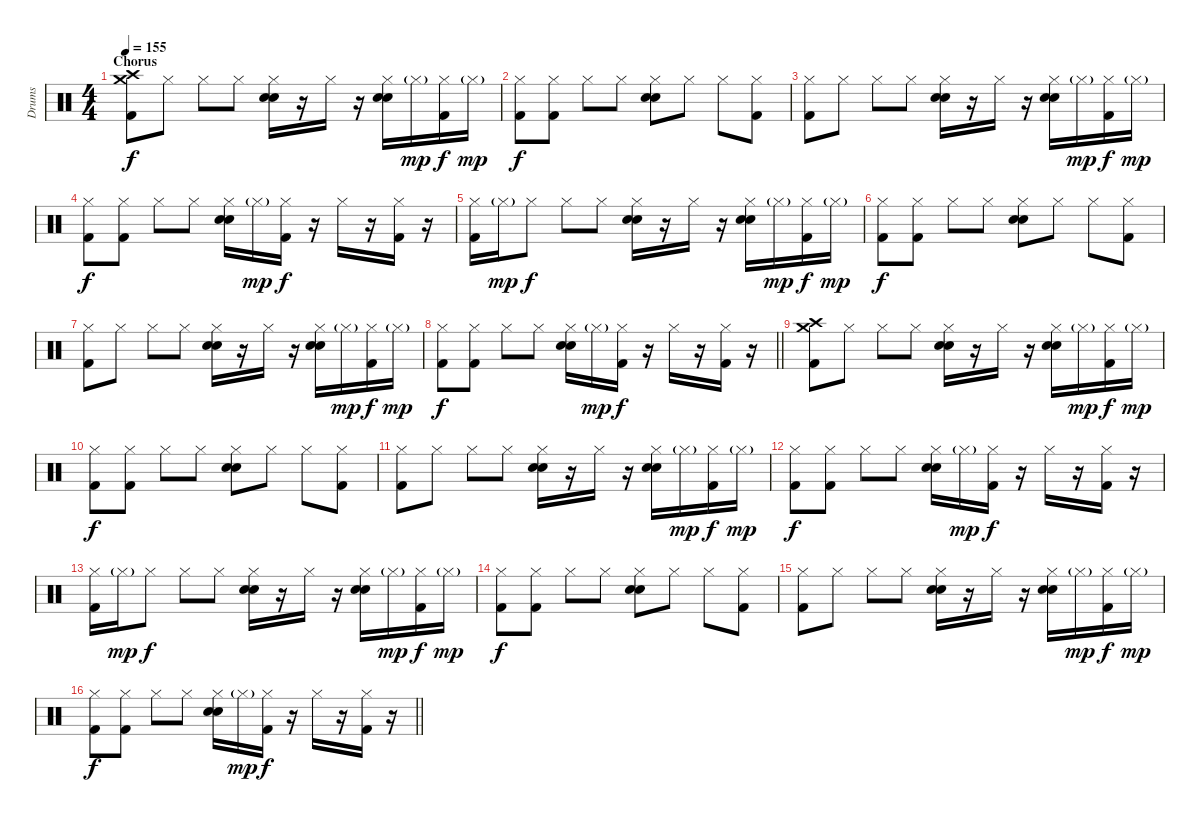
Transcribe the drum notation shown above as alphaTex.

\track ("Drums" "Drums") {instrument percussion}
\staff {score}
\articulation defaults
\ts (4 4)
\section ("" "Chorus")
\tempo 155
\clef neutral
\ks c
("Crash high (hit)" "Crash medium (hit)" "Kick (hit) 2").8{dy f} "Hi-Hat (closed)".8 "Hi-Hat (closed)".8 "Hi-Hat (closed)".8 ("Hi-Hat (closed)" "Electric Snare (hit)" "Hand Clap (hit)").16 r.16 "Hi-Hat (closed)".16 r.16 ("Hi-Hat (closed)" "Electric Snare (hit)" "Hand Clap (hit)").16 "Hi-Hat (closed)"{g}.16{dy mp} ("Hi-Hat (closed)" "Kick (hit) 2").16{dy f} "Hi-Hat (closed)"{g}.16{dy mp} |
("Hi-Hat (closed)" "Kick (hit) 2").8{dy f} ("Hi-Hat (closed)" "Kick (hit) 2").8 "Hi-Hat (closed)".8 "Hi-Hat (closed)".8 ("Hi-Hat (closed)" "Electric Snare (hit)" "Hand Clap (hit)").8 "Hi-Hat (closed)".8 "Hi-Hat (closed)".8 ("Hi-Hat (closed)" "Kick (hit) 2").8 |
("Hi-Hat (closed)" "Kick (hit) 2").8 "Hi-Hat (closed)".8 "Hi-Hat (closed)".8 "Hi-Hat (closed)".8 ("Hi-Hat (closed)" "Electric Snare (hit)" "Hand Clap (hit)").16 r.16 "Hi-Hat (closed)".16 r.16 ("Hi-Hat (closed)" "Electric Snare (hit)" "Hand Clap (hit)").16 "Hi-Hat (closed)"{g}.16{dy mp} ("Hi-Hat (closed)" "Kick (hit) 2").16{dy f} "Hi-Hat (closed)"{g}.16{dy mp} |
("Hi-Hat (closed)" "Kick (hit) 2").8{dy f} ("Hi-Hat (closed)" "Kick (hit) 2").8 "Hi-Hat (closed)".8 "Hi-Hat (closed)".8 ("Hi-Hat (closed)" "Electric Snare (hit)" "Hand Clap (hit)").16 "Hi-Hat (closed)"{g}.16{dy mp} ("Hi-Hat (closed)" "Kick (hit) 2").16{dy f} r.16 "Hi-Hat (closed)".16 r.16 ("Hi-Hat (closed)" "Kick (hit) 2").16 r.16 |
("Hi-Hat (closed)" "Kick (hit) 2").16 "Hi-Hat (closed)"{g}.16{dy mp} "Hi-Hat (closed)".8{dy f} "Hi-Hat (closed)".8 "Hi-Hat (closed)".8 ("Hi-Hat (closed)" "Electric Snare (hit)" "Hand Clap (hit)").16 r.16 "Hi-Hat (closed)".16 r.16 ("Hi-Hat (closed)" "Electric Snare (hit)" "Hand Clap (hit)").16 "Hi-Hat (closed)"{g}.16{dy mp} ("Hi-Hat (closed)" "Kick (hit) 2").16{dy f} "Hi-Hat (closed)"{g}.16{dy mp} |
("Hi-Hat (closed)" "Kick (hit) 2").8{dy f} ("Hi-Hat (closed)" "Kick (hit) 2").8 "Hi-Hat (closed)".8 "Hi-Hat (closed)".8 ("Hi-Hat (closed)" "Electric Snare (hit)" "Hand Clap (hit)").8 "Hi-Hat (closed)".8 "Hi-Hat (closed)".8 ("Hi-Hat (closed)" "Kick (hit) 2").8 |
("Hi-Hat (closed)" "Kick (hit) 2").8 "Hi-Hat (closed)".8 "Hi-Hat (closed)".8 "Hi-Hat (closed)".8 ("Hi-Hat (closed)" "Electric Snare (hit)" "Hand Clap (hit)").16 r.16 "Hi-Hat (closed)".16 r.16 ("Hi-Hat (closed)" "Electric Snare (hit)" "Hand Clap (hit)").16 "Hi-Hat (closed)"{g}.16{dy mp} ("Hi-Hat (closed)" "Kick (hit) 2").16{dy f} "Hi-Hat (closed)"{g}.16{dy mp} |
\barLineRight lightlight
("Hi-Hat (closed)" "Kick (hit) 2").8{dy f} ("Hi-Hat (closed)" "Kick (hit) 2").8 "Hi-Hat (closed)".8 "Hi-Hat (closed)".8 ("Hi-Hat (closed)" "Electric Snare (hit)" "Hand Clap (hit)").16 "Hi-Hat (closed)"{g}.16{dy mp} ("Hi-Hat (closed)" "Kick (hit) 2").16{dy f} r.16 "Hi-Hat (closed)".16 r.16 ("Hi-Hat (closed)" "Kick (hit) 2").16 r.16 |
\section ("" "")
("Crash high (hit)" "Crash medium (hit)" "Kick (hit) 2").8 "Hi-Hat (closed)".8 "Hi-Hat (closed)".8 "Hi-Hat (closed)".8 ("Hi-Hat (closed)" "Electric Snare (hit)" "Hand Clap (hit)").16 r.16 "Hi-Hat (closed)".16 r.16 ("Hi-Hat (closed)" "Electric Snare (hit)" "Hand Clap (hit)").16 "Hi-Hat (closed)"{g}.16{dy mp} ("Hi-Hat (closed)" "Kick (hit) 2").16{dy f} "Hi-Hat (closed)"{g}.16{dy mp} |
("Hi-Hat (closed)" "Kick (hit) 2").8{dy f} ("Hi-Hat (closed)" "Kick (hit) 2").8 "Hi-Hat (closed)".8 "Hi-Hat (closed)".8 ("Hi-Hat (closed)" "Electric Snare (hit)" "Hand Clap (hit)").8 "Hi-Hat (closed)".8 "Hi-Hat (closed)".8 ("Hi-Hat (closed)" "Kick (hit) 2").8 |
("Hi-Hat (closed)" "Kick (hit) 2").8 "Hi-Hat (closed)".8 "Hi-Hat (closed)".8 "Hi-Hat (closed)".8 ("Hi-Hat (closed)" "Electric Snare (hit)" "Hand Clap (hit)").16 r.16 "Hi-Hat (closed)".16 r.16 ("Hi-Hat (closed)" "Electric Snare (hit)" "Hand Clap (hit)").16 "Hi-Hat (closed)"{g}.16{dy mp} ("Hi-Hat (closed)" "Kick (hit) 2").16{dy f} "Hi-Hat (closed)"{g}.16{dy mp} |
("Hi-Hat (closed)" "Kick (hit) 2").8{dy f} ("Hi-Hat (closed)" "Kick (hit) 2").8 "Hi-Hat (closed)".8 "Hi-Hat (closed)".8 ("Hi-Hat (closed)" "Electric Snare (hit)" "Hand Clap (hit)").16 "Hi-Hat (closed)"{g}.16{dy mp} ("Hi-Hat (closed)" "Kick (hit) 2").16{dy f} r.16 "Hi-Hat (closed)".16 r.16 ("Hi-Hat (closed)" "Kick (hit) 2").16 r.16 |
("Hi-Hat (closed)" "Kick (hit) 2").16 "Hi-Hat (closed)"{g}.16{dy mp} "Hi-Hat (closed)".8{dy f} "Hi-Hat (closed)".8 "Hi-Hat (closed)".8 ("Hi-Hat (closed)" "Electric Snare (hit)" "Hand Clap (hit)").16 r.16 "Hi-Hat (closed)".16 r.16 ("Hi-Hat (closed)" "Electric Snare (hit)" "Hand Clap (hit)").16 "Hi-Hat (closed)"{g}.16{dy mp} ("Hi-Hat (closed)" "Kick (hit) 2").16{dy f} "Hi-Hat (closed)"{g}.16{dy mp} |
("Hi-Hat (closed)" "Kick (hit) 2").8{dy f} ("Hi-Hat (closed)" "Kick (hit) 2").8 "Hi-Hat (closed)".8 "Hi-Hat (closed)".8 ("Hi-Hat (closed)" "Electric Snare (hit)" "Hand Clap (hit)").8 "Hi-Hat (closed)".8 "Hi-Hat (closed)".8 ("Hi-Hat (closed)" "Kick (hit) 2").8 |
("Hi-Hat (closed)" "Kick (hit) 2").8 "Hi-Hat (closed)".8 "Hi-Hat (closed)".8 "Hi-Hat (closed)".8 ("Hi-Hat (closed)" "Electric Snare (hit)" "Hand Clap (hit)").16 r.16 "Hi-Hat (closed)".16 r.16 ("Hi-Hat (closed)" "Electric Snare (hit)" "Hand Clap (hit)").16 "Hi-Hat (closed)"{g}.16{dy mp} ("Hi-Hat (closed)" "Kick (hit) 2").16{dy f} "Hi-Hat (closed)"{g}.16{dy mp} |
\barLineRight lightlight
("Hi-Hat (closed)" "Kick (hit) 2").8{dy f} ("Hi-Hat (closed)" "Kick (hit) 2").8 "Hi-Hat (closed)".8 "Hi-Hat (closed)".8 ("Hi-Hat (closed)" "Electric Snare (hit)" "Hand Clap (hit)").16 "Hi-Hat (closed)"{g}.16{dy mp} ("Hi-Hat (closed)" "Kick (hit) 2").16{dy f} r.16 "Hi-Hat (closed)".16 r.16 ("Hi-Hat (closed)" "Kick (hit) 2").16 r.16
